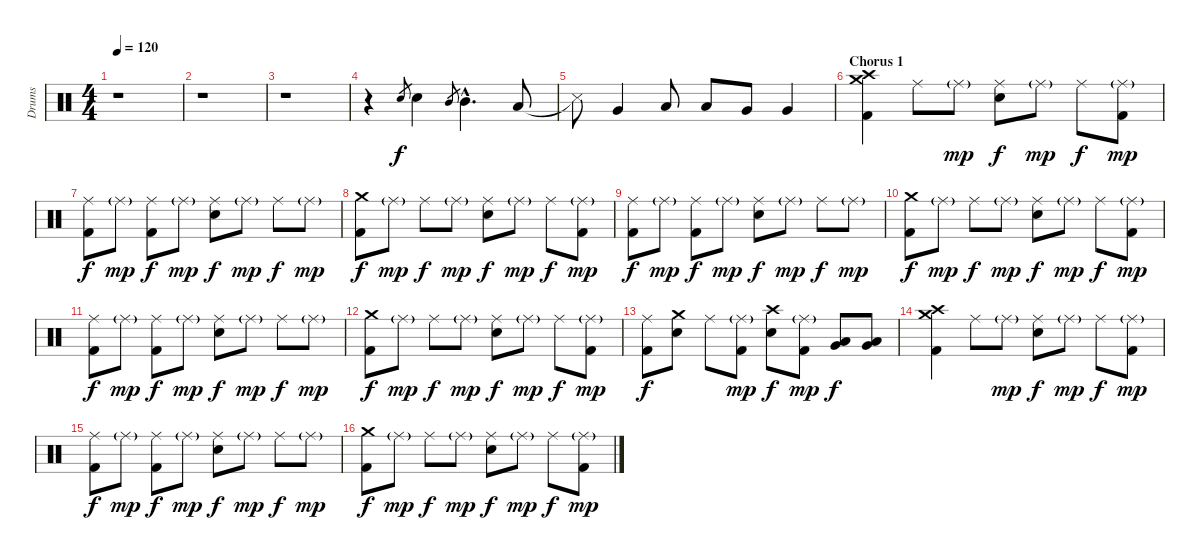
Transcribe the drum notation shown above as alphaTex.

\track ("Drums" "Drums") {instrument percussion}
\staff {score}
\articulation defaults
\ts (4 4)
\tempo 120
\clef neutral
\ks c
r.1{dy f} |
r.1 |
r.1 |
r.4 "Snare (hit) 2".8{gr} "Snare (hit) 2".4 "Mid Tom (hit)".8{gr} "Mid Tom (hit)"{hac}.4{d} "Low Tom (hit)".8 |
"Metronome (hit)"{t}.8 "Very Low Tom (hit)".4 "Low Tom (hit)".8 "Low Tom (hit)".8 "Very Low Tom (hit)".8 "Very Low Tom (hit)".4 |
\section ("" "Chorus 1")
("Crash medium (hit)" "Crash high (hit)" "Kick (hit) 2").4 "Ride (middle)".8 "Ride (middle)"{g}.8{dy mp} ("Ride (middle)" "Snare (hit) 2").8{dy f} "Ride (middle)"{g}.8{dy mp} "Ride (middle)".8{dy f} ("Ride (middle)"{g} "Kick (hit) 2").8{dy mp} |
("Ride (middle)" "Kick (hit) 2").8{dy f} "Ride (middle)"{g}.8{dy mp} ("Ride (middle)" "Kick (hit) 2").8{dy f} "Ride (middle)"{g}.8{dy mp} ("Ride (middle)" "Snare (hit) 2").8{dy f} "Ride (middle)"{g}.8{dy mp} "Ride (middle)".8{dy f} "Ride (middle)"{g}.8{dy mp} |
("Crash medium (hit)" "Kick (hit) 2").8{dy f} "Ride (middle)"{g}.8{dy mp} "Ride (middle)".8{dy f} "Ride (middle)"{g}.8{dy mp} ("Ride (middle)" "Snare (hit) 2").8{dy f} "Ride (middle)"{g}.8{dy mp} "Ride (middle)".8{dy f} ("Ride (middle)"{g} "Kick (hit) 2").8{dy mp} |
("Ride (middle)" "Kick (hit) 2").8{dy f} "Ride (middle)"{g}.8{dy mp} ("Ride (middle)" "Kick (hit) 2").8{dy f} "Ride (middle)"{g}.8{dy mp} ("Ride (middle)" "Snare (hit) 2").8{dy f} "Ride (middle)"{g}.8{dy mp} "Ride (middle)".8{dy f} "Ride (middle)"{g}.8{dy mp} |
("Crash medium (hit)" "Kick (hit) 2").8{dy f} "Ride (middle)"{g}.8{dy mp} "Ride (middle)".8{dy f} "Ride (middle)"{g}.8{dy mp} ("Ride (middle)" "Snare (hit) 2").8{dy f} "Ride (middle)"{g}.8{dy mp} "Ride (middle)".8{dy f} ("Ride (middle)"{g} "Kick (hit) 2").8{dy mp} |
("Ride (middle)" "Kick (hit) 2").8{dy f} "Ride (middle)"{g}.8{dy mp} ("Ride (middle)" "Kick (hit) 2").8{dy f} "Ride (middle)"{g}.8{dy mp} ("Ride (middle)" "Snare (hit) 2").8{dy f} "Ride (middle)"{g}.8{dy mp} "Ride (middle)".8{dy f} "Ride (middle)"{g}.8{dy mp} |
("Crash medium (hit)" "Kick (hit) 2").8{dy f} "Ride (middle)"{g}.8{dy mp} "Ride (middle)".8{dy f} "Ride (middle)"{g}.8{dy mp} ("Ride (middle)" "Snare (hit) 2").8{dy f} "Ride (middle)"{g}.8{dy mp} "Ride (middle)".8{dy f} ("Ride (middle)"{g} "Kick (hit) 2").8{dy mp} |
("Ride (middle)" "Kick (hit) 2").8{dy f} ("Crash medium (hit)" "Snare (hit) 2").8 "Ride (middle)".8 ("Ride (middle)"{g} "Kick (hit) 2").8{dy mp} ("Crash high (hit)" "Snare (hit) 2").8{dy f} ("Ride (middle)"{g} "Kick (hit) 2").8{dy mp} ("Low Tom (hit)" "Very Low Tom (hit)").8{dy f} ("Low Tom (hit)" "Very Low Tom (hit)").8 |
("Crash medium (hit)" "Crash high (hit)" "Kick (hit) 2").4 "Ride (middle)".8 "Ride (middle)"{g}.8{dy mp} ("Ride (middle)" "Snare (hit) 2").8{dy f} "Ride (middle)"{g}.8{dy mp} "Ride (middle)".8{dy f} ("Ride (middle)"{g} "Kick (hit) 2").8{dy mp} |
("Ride (middle)" "Kick (hit) 2").8{dy f} "Ride (middle)"{g}.8{dy mp} ("Ride (middle)" "Kick (hit) 2").8{dy f} "Ride (middle)"{g}.8{dy mp} ("Ride (middle)" "Snare (hit) 2").8{dy f} "Ride (middle)"{g}.8{dy mp} "Ride (middle)".8{dy f} "Ride (middle)"{g}.8{dy mp} |
("Crash medium (hit)" "Kick (hit) 2").8{dy f} "Ride (middle)"{g}.8{dy mp} "Ride (middle)".8{dy f} "Ride (middle)"{g}.8{dy mp} ("Ride (middle)" "Snare (hit) 2").8{dy f} "Ride (middle)"{g}.8{dy mp} "Ride (middle)".8{dy f} ("Ride (middle)"{g} "Kick (hit) 2").8{dy mp}
